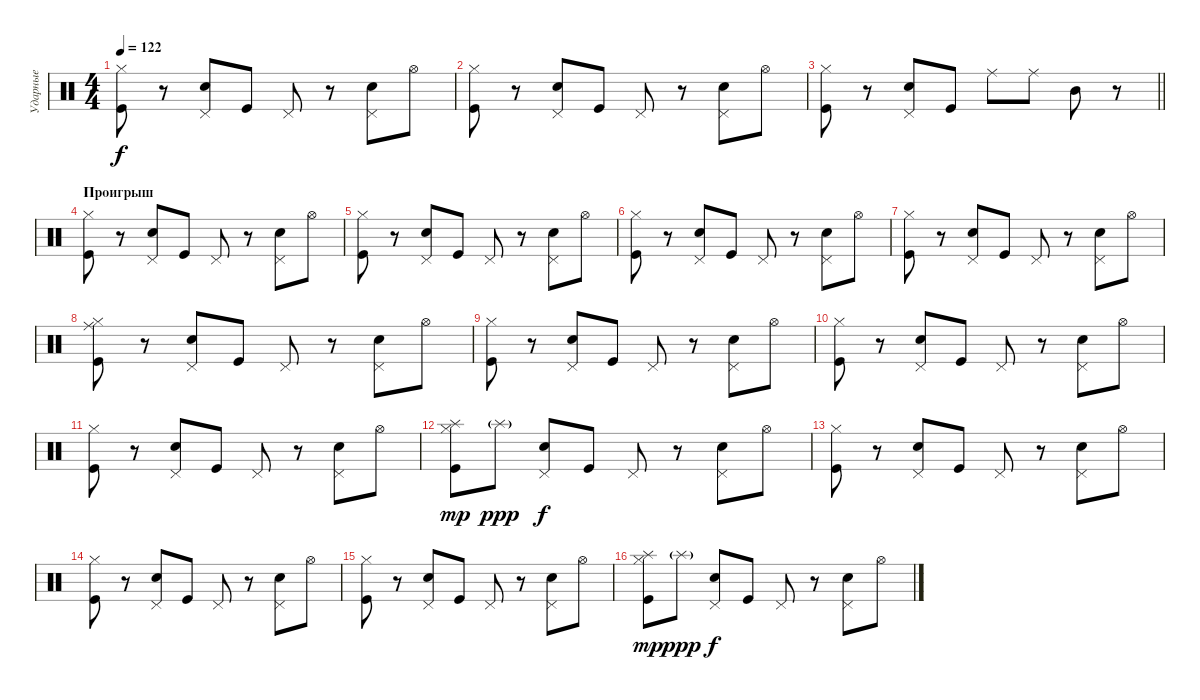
\track ("Ударные" "Ударные") {instrument percussion}
\staff {score}
\articulation defaults
\ts (4 4)
\tempo 122
\clef neutral
\ks c
("Hi-Hat (closed)" "Kick (hit)").8{dy f} r.8 ("Pedal Hi-Hat (hit)" "Snare (hit) 2").8 "Kick (hit)".8 "Pedal Hi-Hat (hit)".8 r.8 ("Pedal Hi-Hat (hit)" "Snare (hit) 2").8 "Hi-Hat (open)".8 |
("Hi-Hat (closed)" "Kick (hit)").8 r.8 ("Pedal Hi-Hat (hit)" "Snare (hit) 2").8 "Kick (hit)".8 "Pedal Hi-Hat (hit)".8 r.8 ("Pedal Hi-Hat (hit)" "Snare (hit) 2").8 "Hi-Hat (open)".8 |
\barLineRight lightlight
("Hi-Hat (closed)" "Kick (hit)").8 r.8 ("Pedal Hi-Hat (hit)" "Snare (hit) 2").8 "Kick (hit)".8 "Ride (middle)".8 "Ride (middle)".8 "Mid Tom (hit)".8 r.8 |
\section ("" "Проигрыш")
("Hi-Hat (closed)" "Kick (hit)").8 r.8 ("Pedal Hi-Hat (hit)" "Snare (hit) 2").8 "Kick (hit)".8 "Pedal Hi-Hat (hit)".8 r.8 ("Pedal Hi-Hat (hit)" "Snare (hit) 2").8 "Hi-Hat (open)".8 |
("Hi-Hat (closed)" "Kick (hit)").8 r.8 ("Pedal Hi-Hat (hit)" "Snare (hit) 2").8 "Kick (hit)".8 "Pedal Hi-Hat (hit)".8 r.8 ("Pedal Hi-Hat (hit)" "Snare (hit) 2").8 "Hi-Hat (open)".8 |
("Hi-Hat (closed)" "Kick (hit)").8 r.8 ("Pedal Hi-Hat (hit)" "Snare (hit) 2").8 "Kick (hit)".8 "Pedal Hi-Hat (hit)".8 r.8 ("Pedal Hi-Hat (hit)" "Snare (hit) 2").8 "Hi-Hat (open)".8 |
("Hi-Hat (closed)" "Kick (hit)").8 r.8 ("Pedal Hi-Hat (hit)" "Snare (hit) 2").8 "Kick (hit)".8 "Pedal Hi-Hat (hit)".8 r.8 ("Pedal Hi-Hat (hit)" "Snare (hit) 2").8 "Hi-Hat (open)".8 |
("Hi-Hat (closed)" "Ride (middle)" "Kick (hit)").8 r.8 ("Pedal Hi-Hat (hit)" "Snare (hit) 2").8 "Kick (hit)".8 "Pedal Hi-Hat (hit)".8 r.8 ("Pedal Hi-Hat (hit)" "Snare (hit) 2").8 "Hi-Hat (open)".8 |
("Hi-Hat (closed)" "Kick (hit)").8 r.8 ("Pedal Hi-Hat (hit)" "Snare (hit) 2").8 "Kick (hit)".8 "Pedal Hi-Hat (hit)".8 r.8 ("Pedal Hi-Hat (hit)" "Snare (hit) 2").8 "Hi-Hat (open)".8 |
("Hi-Hat (closed)" "Kick (hit)").8 r.8 ("Pedal Hi-Hat (hit)" "Snare (hit) 2").8 "Kick (hit)".8 "Pedal Hi-Hat (hit)".8 r.8 ("Pedal Hi-Hat (hit)" "Snare (hit) 2").8 "Hi-Hat (open)".8 |
("Hi-Hat (closed)" "Kick (hit)").8 r.8 ("Pedal Hi-Hat (hit)" "Snare (hit) 2").8 "Kick (hit)".8 "Pedal Hi-Hat (hit)".8 r.8 ("Pedal Hi-Hat (hit)" "Snare (hit) 2").8 "Hi-Hat (open)".8 |
("Hi-Hat (closed)" "Splash (hit)" "Kick (hit)").8{dy mp} "Splash (hit)"{g}.8{dy ppp} ("Pedal Hi-Hat (hit)" "Snare (hit) 2").8{dy f} "Kick (hit)".8 "Pedal Hi-Hat (hit)".8 r.8 ("Pedal Hi-Hat (hit)" "Snare (hit) 2").8 "Hi-Hat (open)".8 |
("Hi-Hat (closed)" "Kick (hit)").8 r.8 ("Pedal Hi-Hat (hit)" "Snare (hit) 2").8 "Kick (hit)".8 "Pedal Hi-Hat (hit)".8 r.8 ("Pedal Hi-Hat (hit)" "Snare (hit) 2").8 "Hi-Hat (open)".8 |
("Hi-Hat (closed)" "Kick (hit)").8 r.8 ("Pedal Hi-Hat (hit)" "Snare (hit) 2").8 "Kick (hit)".8 "Pedal Hi-Hat (hit)".8 r.8 ("Pedal Hi-Hat (hit)" "Snare (hit) 2").8 "Hi-Hat (open)".8 |
("Hi-Hat (closed)" "Kick (hit)").8 r.8 ("Pedal Hi-Hat (hit)" "Snare (hit) 2").8 "Kick (hit)".8 "Pedal Hi-Hat (hit)".8 r.8 ("Pedal Hi-Hat (hit)" "Snare (hit) 2").8 "Hi-Hat (open)".8 |
("Hi-Hat (closed)" "Splash (hit)" "Kick (hit)").8{dy mp} "Splash (hit)"{g}.8{dy ppp} ("Pedal Hi-Hat (hit)" "Snare (hit) 2").8{dy f} "Kick (hit)".8 "Pedal Hi-Hat (hit)".8 r.8 ("Pedal Hi-Hat (hit)" "Snare (hit) 2").8 "Hi-Hat (open)".8
